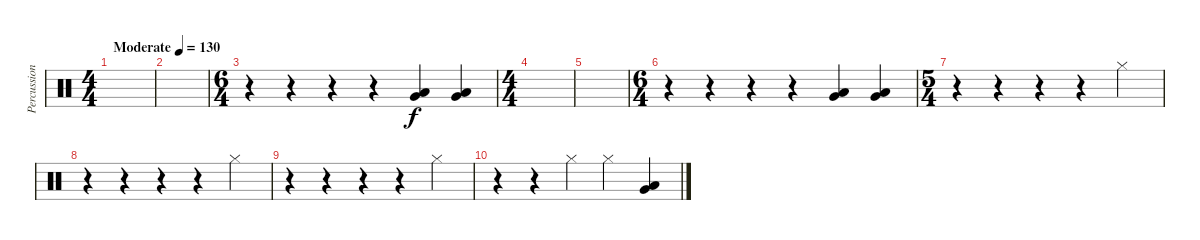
\track ("Percussion" "Percussion") {instrument percussion}
\staff {score}
\articulation defaults
\ts (4 4)
\tempo (130 "Moderate")
\clef neutral
\ks c
|
|
\ts (6 4)
r.4 r.4 r.4 r.4 ("Very Low Tom (hit)" "Low Floor Tom (hit)").4 ("Very Low Tom (hit)" "Low Floor Tom (hit)").4 |
\ts (4 4)
|
|
\ts (6 4)
r.4 r.4 r.4 r.4 ("Very Low Tom (hit)" "Low Floor Tom (hit)").4 ("Very Low Tom (hit)" "Low Floor Tom (hit)").4 |
\ts (5 4)
r.4 r.4 r.4 r.4 "Hi-Hat (closed)".4 |
r.4 r.4 r.4 r.4 "Hi-Hat (closed)".4 |
r.4 r.4 r.4 r.4 "Hi-Hat (closed)".4 |
r.4 r.4 "Hi-Hat (closed)".4 "Hi-Hat (closed)".4 ("Very Low Tom (hit)" "Low Floor Tom (hit)").4
